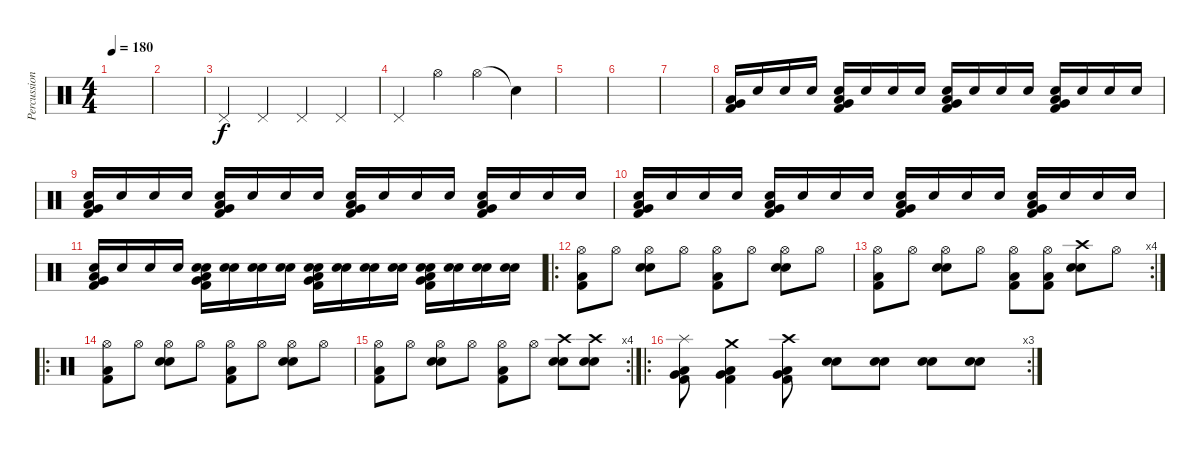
\track ("Percussions" "Percussion") {instrument percussion}
\staff {score}
\articulation defaults
\ts (4 4)
\tempo 180
\clef neutral
\ks c
|
|
"Pedal Hi-Hat (hit)".4 "Pedal Hi-Hat (hit)".4 "Pedal Hi-Hat (hit)".4 "Pedal Hi-Hat (hit)".4 |
"Pedal Hi-Hat (hit)".4 "Hi-Hat (open)".4 "Hi-Hat (open)".4 "Snare (hit)"{t}.4 |
|
|
|
("Kick (hit) 2" "Low Floor Tom (hit)" "Very Low Tom (hit)").16{volume 9} "Snare (hit) 2".16 "Snare (hit) 2".16 "Snare (hit) 2".16 ("Snare (hit) 2" "Kick (hit) 2" "Low Floor Tom (hit)" "Very Low Tom (hit)").16 "Snare (hit) 2".16 "Snare (hit) 2".16 "Snare (hit) 2".16 ("Snare (hit) 2" "Kick (hit) 2" "Low Floor Tom (hit)" "Very Low Tom (hit)").16 "Snare (hit) 2".16 "Snare (hit) 2".16 "Snare (hit) 2".16 ("Snare (hit) 2" "Kick (hit) 2" "Low Floor Tom (hit)" "Very Low Tom (hit)").16 "Snare (hit) 2".16 "Snare (hit) 2".16 "Snare (hit) 2".16 |
("Snare (hit) 2" "Kick (hit) 2" "Low Floor Tom (hit)" "Very Low Tom (hit)").16{volume 12} "Snare (hit) 2".16 "Snare (hit) 2".16 "Snare (hit) 2".16 ("Snare (hit) 2" "Kick (hit) 2" "Low Floor Tom (hit)" "Very Low Tom (hit)").16 "Snare (hit) 2".16 "Snare (hit) 2".16 "Snare (hit) 2".16 ("Snare (hit) 2" "Kick (hit) 2" "Low Floor Tom (hit)" "Very Low Tom (hit)").16 "Snare (hit) 2".16 "Snare (hit) 2".16 "Snare (hit) 2".16 ("Snare (hit) 2" "Kick (hit) 2" "Low Floor Tom (hit)" "Very Low Tom (hit)").16 "Snare (hit) 2".16 "Snare (hit) 2".16 "Snare (hit) 2".16 |
("Snare (hit) 2" "Kick (hit) 2" "Low Floor Tom (hit)" "Very Low Tom (hit)").16{volume 13} "Snare (hit) 2".16 "Snare (hit) 2".16 "Snare (hit) 2".16 ("Snare (hit) 2" "Kick (hit) 2" "Low Floor Tom (hit)" "Very Low Tom (hit)").16 "Snare (hit) 2".16 "Snare (hit) 2".16 "Snare (hit) 2".16 ("Snare (hit) 2" "Kick (hit) 2" "Low Floor Tom (hit)" "Very Low Tom (hit)").16 "Snare (hit) 2".16 "Snare (hit) 2".16 "Snare (hit) 2".16 ("Snare (hit) 2" "Kick (hit) 2" "Low Floor Tom (hit)" "Very Low Tom (hit)").16 "Snare (hit) 2".16 "Snare (hit) 2".16 "Snare (hit) 2".16 |
("Snare (hit) 2" "Kick (hit) 2" "Low Floor Tom (hit)" "Very Low Tom (hit)").16{volume 16} "Snare (hit) 2".16 "Snare (hit) 2".16 "Snare (hit) 2".16 ("Electric Snare (hit)" "Snare (hit) 2" "Kick (hit) 2" "Low Floor Tom (hit)" "Very Low Tom (hit)").16 ("Electric Snare (hit)" "Snare (hit) 2").16 ("Electric Snare (hit)" "Snare (hit) 2").16 ("Electric Snare (hit)" "Snare (hit) 2").16 ("Electric Snare (hit)" "Snare (hit) 2" "Kick (hit) 2" "Low Floor Tom (hit)" "Very Low Tom (hit)").16 ("Electric Snare (hit)" "Snare (hit) 2").16 ("Electric Snare (hit)" "Snare (hit) 2").16 ("Electric Snare (hit)" "Snare (hit) 2").16 ("Electric Snare (hit)" "Snare (hit) 2" "Kick (hit) 2" "Low Floor Tom (hit)" "Very Low Tom (hit)").16 ("Electric Snare (hit)" "Snare (hit) 2").16 ("Electric Snare (hit)" "Snare (hit) 2").16 ("Electric Snare (hit)" "Snare (hit) 2").16 |
\ro
("Hi-Hat (open)" "Kick (hit) 2" "Low Floor Tom (hit)").8 "Hi-Hat (open)".8 ("Hi-Hat (open)" "Snare (hit) 2" "Electric Snare (hit)").8 "Hi-Hat (open)".8 ("Hi-Hat (open)" "Kick (hit) 2" "Low Floor Tom (hit)").8 "Hi-Hat (open)".8 ("Hi-Hat (open)" "Snare (hit) 2" "Electric Snare (hit)").8 "Hi-Hat (open)".8 |
\rc 4
("Hi-Hat (open)" "Kick (hit) 2" "Low Floor Tom (hit)").8 "Hi-Hat (open)".8 ("Hi-Hat (open)" "Snare (hit) 2" "Electric Snare (hit)").8 "Hi-Hat (open)".8 ("Hi-Hat (open)" "Kick (hit) 2" "Low Floor Tom (hit)").8 ("Hi-Hat (open)" "Kick (hit) 2" "Low Floor Tom (hit)").8 ("Crash high (hit)" "Snare (hit) 2" "Electric Snare (hit)").8 "Hi-Hat (open)".8 |
\ro
("Hi-Hat (open)" "Kick (hit) 2" "Low Floor Tom (hit)").8 "Hi-Hat (open)".8 ("Hi-Hat (open)" "Snare (hit) 2" "Electric Snare (hit)").8 "Hi-Hat (open)".8 ("Hi-Hat (open)" "Kick (hit) 2" "Low Floor Tom (hit)").8 "Hi-Hat (open)".8 ("Hi-Hat (open)" "Snare (hit) 2" "Electric Snare (hit)").8 "Hi-Hat (open)".8 |
\rc 4
("Hi-Hat (open)" "Kick (hit) 2" "Low Floor Tom (hit)").8 "Hi-Hat (open)".8 ("Hi-Hat (open)" "Snare (hit) 2" "Electric Snare (hit)").8 "Hi-Hat (open)".8 ("Hi-Hat (open)" "Kick (hit) 2" "Low Floor Tom (hit)").8 "Hi-Hat (open)".8 ("Crash high (hit)" "Snare (hit) 2" "Electric Snare (hit)").8 ("Crash high (hit)" "Snare (hit) 2" "Electric Snare (hit)").8 |
\ro
\rc 3
("Splash (hit)" "Kick (hit) 2" "Low Floor Tom (hit)" "Very Low Tom (hit)").8 ("Crash medium (hit)" "Kick (hit) 2" "Low Floor Tom (hit)" "Very Low Tom (hit)").4 ("Crash high (hit)" "Kick (hit) 2" "Low Floor Tom (hit)" "Very Low Tom (hit)").8 ("Snare (hit) 2" "Electric Snare (hit)").8 ("Snare (hit) 2" "Electric Snare (hit)").8 ("Snare (hit) 2" "Electric Snare (hit)").8 ("Snare (hit) 2" "Electric Snare (hit)").8
